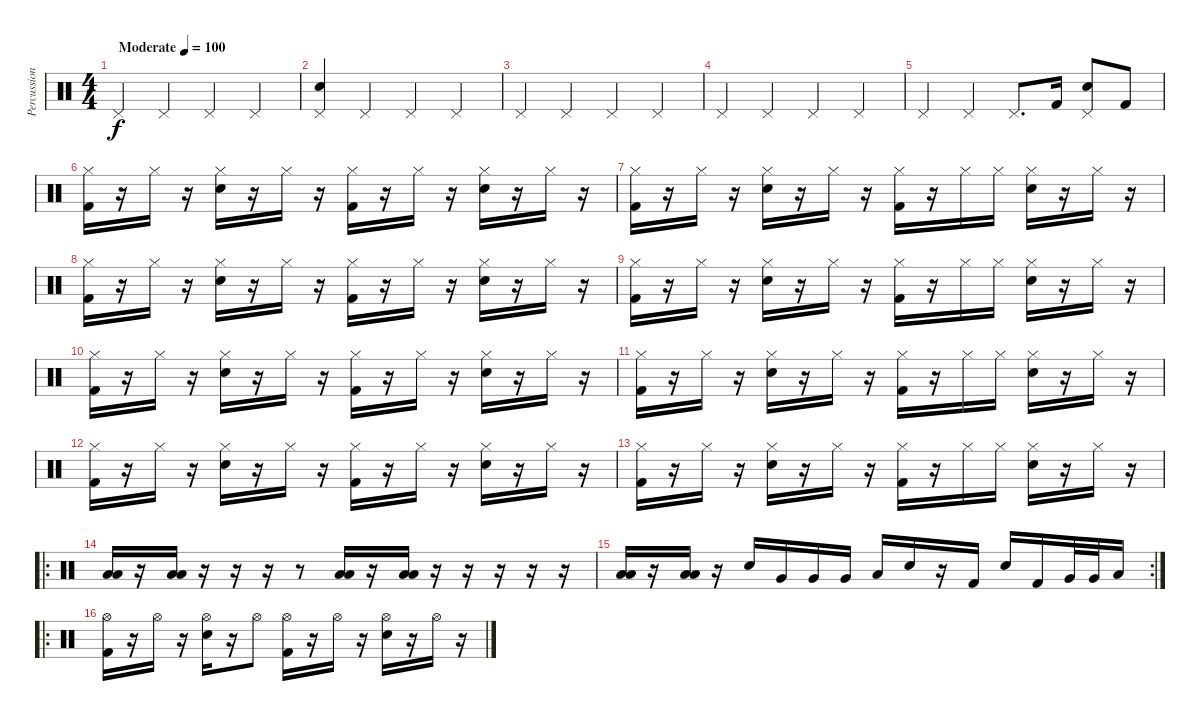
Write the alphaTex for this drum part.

\track ("Percussion" "Percussion") {instrument percussion}
\staff {score}
\articulation defaults
\ts (4 4)
\tempo (100 "Moderate")
\clef neutral
\ks c "Pedal Hi-Hat (hit)".4{dy f} "Pedal Hi-Hat (hit)".4 "Pedal Hi-Hat (hit)".4 "Pedal Hi-Hat (hit)".4
|
("Pedal Hi-Hat (hit)" "Electric Snare (hit)").4 "Pedal Hi-Hat (hit)".4 "Pedal Hi-Hat (hit)".4 "Pedal Hi-Hat (hit)".4 |
"Pedal Hi-Hat (hit)".4 "Pedal Hi-Hat (hit)".4 "Pedal Hi-Hat (hit)".4 "Pedal Hi-Hat (hit)".4 |
"Pedal Hi-Hat (hit)".4 "Pedal Hi-Hat (hit)".4 "Pedal Hi-Hat (hit)".4 "Pedal Hi-Hat (hit)".4 |
"Pedal Hi-Hat (hit)".4 "Pedal Hi-Hat (hit)".4 "Pedal Hi-Hat (hit)".8{d} "Kick (hit) 2".16 ("Pedal Hi-Hat (hit)" "Electric Snare (hit)").8 "Kick (hit) 2".8 |
("Kick (hit) 2" "Hi-Hat (closed)").16 r.16 "Hi-Hat (closed)".16 r.16 ("Electric Snare (hit)" "Hi-Hat (closed)").16 r.16 "Hi-Hat (closed)".16 r.16 ("Kick (hit) 2" "Hi-Hat (closed)").16 r.16 "Hi-Hat (closed)".16 r.16 ("Electric Snare (hit)" "Hi-Hat (closed)").16 r.16 "Hi-Hat (closed)".16 r.16 |
("Kick (hit) 2" "Hi-Hat (closed)").16 r.16 "Hi-Hat (closed)".16 r.16 ("Electric Snare (hit)" "Hi-Hat (closed)").16 r.16 "Hi-Hat (closed)".16 r.16 ("Kick (hit) 2" "Hi-Hat (closed)").16 r.16 "Hi-Hat (closed)".16 "Hi-Hat (closed)".16 ("Electric Snare (hit)" "Hi-Hat (closed)").16 r.16 "Hi-Hat (closed)".16 r.16 |
("Kick (hit) 2" "Hi-Hat (closed)").16 r.16 "Hi-Hat (closed)".16 r.16 ("Electric Snare (hit)" "Hi-Hat (closed)").16 r.16 "Hi-Hat (closed)".16 r.16 ("Kick (hit) 2" "Hi-Hat (closed)").16 r.16 "Hi-Hat (closed)".16 r.16 ("Electric Snare (hit)" "Hi-Hat (closed)").16 r.16 "Hi-Hat (closed)".16 r.16 |
("Kick (hit) 2" "Hi-Hat (closed)").16 r.16 "Hi-Hat (closed)".16 r.16 ("Electric Snare (hit)" "Hi-Hat (closed)").16 r.16 "Hi-Hat (closed)".16 r.16 ("Kick (hit) 2" "Hi-Hat (closed)").16 r.16 "Hi-Hat (closed)".16 "Hi-Hat (closed)".16 ("Electric Snare (hit)" "Hi-Hat (closed)").16 r.16 "Hi-Hat (closed)".16 r.16 |
("Kick (hit) 2" "Hi-Hat (closed)").16 r.16 "Hi-Hat (closed)".16 r.16 ("Electric Snare (hit)" "Hi-Hat (closed)").16 r.16 "Hi-Hat (closed)".16 r.16 ("Kick (hit) 2" "Hi-Hat (closed)").16 r.16 "Hi-Hat (closed)".16 r.16 ("Electric Snare (hit)" "Hi-Hat (closed)").16 r.16 "Hi-Hat (closed)".16 r.16 |
("Kick (hit) 2" "Hi-Hat (closed)").16 r.16 "Hi-Hat (closed)".16 r.16 ("Electric Snare (hit)" "Hi-Hat (closed)").16 r.16 "Hi-Hat (closed)".16 r.16 ("Kick (hit) 2" "Hi-Hat (closed)").16 r.16 "Hi-Hat (closed)".16 "Hi-Hat (closed)".16 ("Electric Snare (hit)" "Hi-Hat (closed)").16 r.16 "Hi-Hat (closed)".16 r.16 |
("Kick (hit) 2" "Hi-Hat (closed)").16 r.16 "Hi-Hat (closed)".16 r.16 ("Electric Snare (hit)" "Hi-Hat (closed)").16 r.16 "Hi-Hat (closed)".16 r.16 ("Kick (hit) 2" "Hi-Hat (closed)").16 r.16 "Hi-Hat (closed)".16 r.16 ("Electric Snare (hit)" "Hi-Hat (closed)").16 r.16 "Hi-Hat (closed)".16 r.16 |
("Kick (hit) 2" "Hi-Hat (closed)").16 r.16 "Hi-Hat (closed)".16 r.16 ("Electric Snare (hit)" "Hi-Hat (closed)").16 r.16 "Hi-Hat (closed)".16 r.16 ("Kick (hit) 2" "Hi-Hat (closed)").16 r.16 "Hi-Hat (closed)".16 "Hi-Hat (closed)".16 ("Electric Snare (hit)" "Hi-Hat (closed)").16 r.16 "Hi-Hat (closed)".16 r.16 |
\ro
("Low Floor Tom (hit)" "Low Tom (hit)").16 r.16 ("Low Floor Tom (hit)" "Low Tom (hit)").16 r.16 r.16 r.16 r.8 ("Low Floor Tom (hit)" "Low Tom (hit)").16 r.16 ("Low Floor Tom (hit)" "Low Tom (hit)").16 r.16 r.16 r.16 r.16 r.16 |
\rc 2
("Low Floor Tom (hit)" "Low Tom (hit)").16 r.16 ("Low Floor Tom (hit)" "Low Tom (hit)").16 r.16 "Electric Snare (hit)".16 "Very Low Tom (hit)".16 "Very Low Tom (hit)".16 "Very Low Tom (hit)".16 "Low Tom (hit)".16 "Electric Snare (hit)".16 r.16 "Kick (hit) 2".16 "Electric Snare (hit)".16 "Kick (hit) 2".16 "Very Low Tom (hit)".32 "Very Low Tom (hit)".32 "Low Floor Tom (hit)".16 |
\ro
("Kick (hit) 2" "Hi-Hat (open)").16 r.16 "Hi-Hat (open)".16 r.16 ("Electric Snare (hit)" "Hi-Hat (open)").16 r.16 "Hi-Hat (open)".8 ("Kick (hit) 2" "Hi-Hat (open)").16 r.16 "Hi-Hat (open)".16 r.16 ("Electric Snare (hit)" "Hi-Hat (open)").16 r.16 "Hi-Hat (open)".16 r.16
